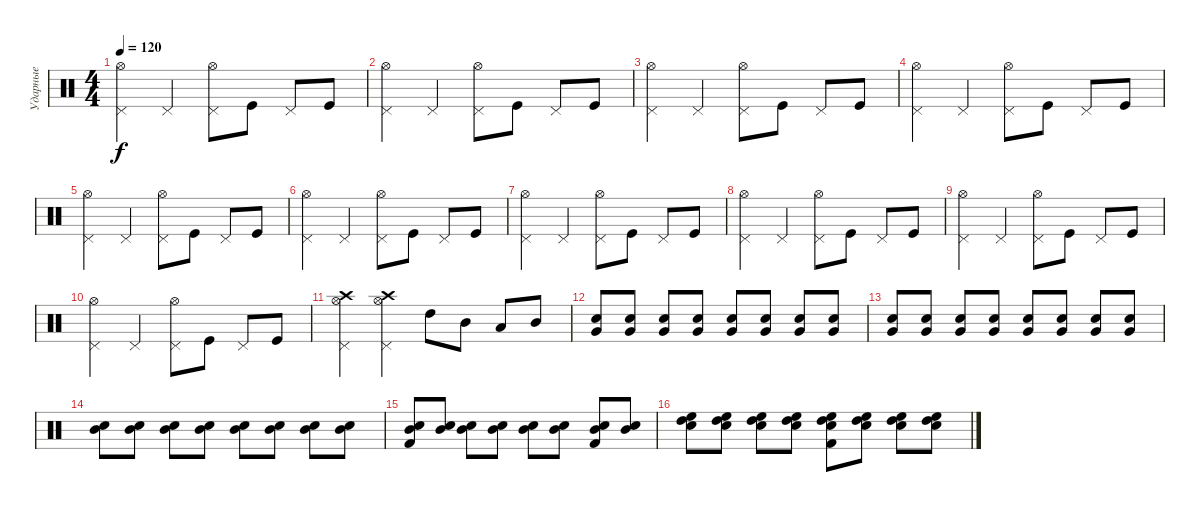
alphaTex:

\track ("Ударные" "Ударные") {instrument percussion}
\staff {score}
\articulation defaults
\ts (4 4)
\tempo 120
\clef neutral
\ks c
("Pedal Hi-Hat (hit)" "Hi-Hat (open)").4{dy f} "Pedal Hi-Hat (hit)".4 ("Pedal Hi-Hat (hit)" "Hi-Hat (open)").8 "Kick (hit)".8 "Pedal Hi-Hat (hit)".8 "Kick (hit)".8 |
("Pedal Hi-Hat (hit)" "Hi-Hat (open)").4 "Pedal Hi-Hat (hit)".4 ("Pedal Hi-Hat (hit)" "Hi-Hat (open)").8 "Kick (hit)".8 "Pedal Hi-Hat (hit)".8 "Kick (hit)".8 |
("Pedal Hi-Hat (hit)" "Hi-Hat (open)").4 "Pedal Hi-Hat (hit)".4 ("Pedal Hi-Hat (hit)" "Hi-Hat (open)").8 "Kick (hit)".8 "Pedal Hi-Hat (hit)".8 "Kick (hit)".8 |
("Pedal Hi-Hat (hit)" "Hi-Hat (open)").4 "Pedal Hi-Hat (hit)".4 ("Pedal Hi-Hat (hit)" "Hi-Hat (open)").8 "Kick (hit)".8 "Pedal Hi-Hat (hit)".8 "Kick (hit)".8 |
("Pedal Hi-Hat (hit)" "Hi-Hat (open)").4 "Pedal Hi-Hat (hit)".4 ("Pedal Hi-Hat (hit)" "Hi-Hat (open)").8 "Kick (hit)".8 "Pedal Hi-Hat (hit)".8 "Kick (hit)".8 |
("Pedal Hi-Hat (hit)" "Hi-Hat (open)").4 "Pedal Hi-Hat (hit)".4 ("Pedal Hi-Hat (hit)" "Hi-Hat (open)").8 "Kick (hit)".8 "Pedal Hi-Hat (hit)".8 "Kick (hit)".8 |
("Pedal Hi-Hat (hit)" "Hi-Hat (open)").4 "Pedal Hi-Hat (hit)".4 ("Pedal Hi-Hat (hit)" "Hi-Hat (open)").8 "Kick (hit)".8 "Pedal Hi-Hat (hit)".8 "Kick (hit)".8 |
("Pedal Hi-Hat (hit)" "Hi-Hat (open)").4 "Pedal Hi-Hat (hit)".4 ("Pedal Hi-Hat (hit)" "Hi-Hat (open)").8 "Kick (hit)".8 "Pedal Hi-Hat (hit)".8 "Kick (hit)".8 |
("Pedal Hi-Hat (hit)" "Hi-Hat (open)").4 "Pedal Hi-Hat (hit)".4 ("Pedal Hi-Hat (hit)" "Hi-Hat (open)").8 "Kick (hit)".8 "Pedal Hi-Hat (hit)".8 "Kick (hit)".8 |
("Pedal Hi-Hat (hit)" "Hi-Hat (open)").4 "Pedal Hi-Hat (hit)".4 ("Pedal Hi-Hat (hit)" "Hi-Hat (open)").8 "Kick (hit)".8 "Pedal Hi-Hat (hit)".8 "Kick (hit)".8 |
("Pedal Hi-Hat (hit)" "Hi-Hat (open)" "Crash high (hit)").4 ("Pedal Hi-Hat (hit)" "Hi-Hat (open)" "Crash high (hit)").4 "High Tom (hit)".8 "Mid Tom (hit)".8 "Low Tom (hit)".8 "Mid Tom (hit)".8 |
("Electric Snare (hit)" "Very Low Tom (hit)").8{volume 2} ("Electric Snare (hit)" "Very Low Tom (hit)").8{volume 16} ("Electric Snare (hit)" "Very Low Tom (hit)").8 ("Electric Snare (hit)" "Very Low Tom (hit)").8 ("Electric Snare (hit)" "Very Low Tom (hit)").8 ("Electric Snare (hit)" "Very Low Tom (hit)").8 ("Electric Snare (hit)" "Very Low Tom (hit)").8 ("Electric Snare (hit)" "Very Low Tom (hit)").8 |
("Electric Snare (hit)" "Very Low Tom (hit)").8 ("Electric Snare (hit)" "Very Low Tom (hit)").8 ("Electric Snare (hit)" "Very Low Tom (hit)").8 ("Electric Snare (hit)" "Very Low Tom (hit)").8 ("Electric Snare (hit)" "Very Low Tom (hit)").8 ("Electric Snare (hit)" "Very Low Tom (hit)").8 ("Electric Snare (hit)" "Very Low Tom (hit)").8 ("Electric Snare (hit)" "Very Low Tom (hit)").8 |
("Electric Snare (hit)" "Mid Tom (hit)").8 ("Electric Snare (hit)" "Mid Tom (hit)").8 ("Electric Snare (hit)" "Mid Tom (hit)").8 ("Electric Snare (hit)" "Mid Tom (hit)").8 ("Electric Snare (hit)" "Mid Tom (hit)").8 ("Electric Snare (hit)" "Mid Tom (hit)").8 ("Electric Snare (hit)" "Mid Tom (hit)").8 ("Electric Snare (hit)" "Mid Tom (hit)").8 |
("Electric Snare (hit)" "Mid Tom (hit)" "Kick (hit) 2").8 ("Electric Snare (hit)" "Mid Tom (hit)").8 ("Electric Snare (hit)" "Mid Tom (hit)").8 ("Electric Snare (hit)" "Mid Tom (hit)").8 ("Electric Snare (hit)" "Mid Tom (hit)").8 ("Electric Snare (hit)" "Mid Tom (hit)").8 ("Electric Snare (hit)" "Mid Tom (hit)" "Kick (hit) 2").8 ("Electric Snare (hit)" "Mid Tom (hit)").8 |
("Electric Snare (hit)" "High Floor Tom (hit)" "High Tom (hit)").8 ("Electric Snare (hit)" "High Floor Tom (hit)" "High Tom (hit)").8 ("Electric Snare (hit)" "High Floor Tom (hit)" "High Tom (hit)").8 ("Electric Snare (hit)" "High Floor Tom (hit)" "High Tom (hit)").8 ("Electric Snare (hit)" "High Floor Tom (hit)" "High Tom (hit)" "Kick (hit) 2").8 ("Electric Snare (hit)" "High Floor Tom (hit)" "High Tom (hit)").8 ("Electric Snare (hit)" "High Floor Tom (hit)" "High Tom (hit)").8 ("Electric Snare (hit)" "High Floor Tom (hit)" "High Tom (hit)").8
